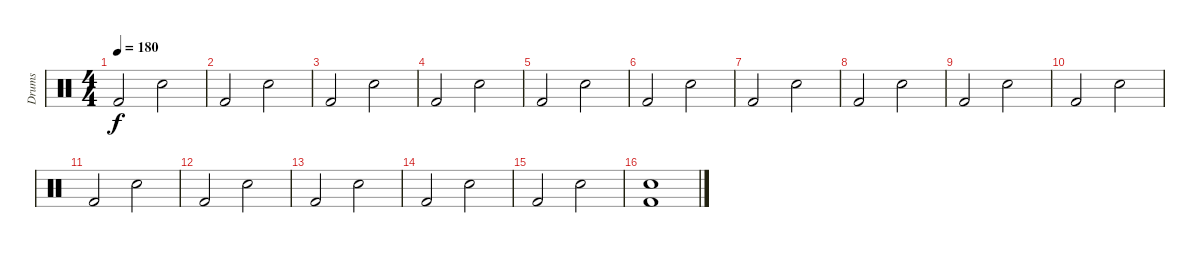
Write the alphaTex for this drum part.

\track ("Drums" "Drums") {instrument percussion}
\staff {score}
\articulation defaults
\ts (4 4)
\tempo 180
\clef neutral
\ks c "Kick (hit) 2".2{dy f} "Snare (hit) 2".2
|
"Kick (hit) 2".2 "Snare (hit) 2".2 |
"Kick (hit) 2".2 "Snare (hit) 2".2 |
"Kick (hit) 2".2 "Snare (hit) 2".2 |
"Kick (hit) 2".2 "Snare (hit) 2".2 |
"Kick (hit) 2".2 "Snare (hit) 2".2 |
"Kick (hit) 2".2 "Snare (hit) 2".2 |
"Kick (hit) 2".2 "Snare (hit) 2".2 |
"Kick (hit) 2".2 "Snare (hit) 2".2 |
"Kick (hit) 2".2 "Snare (hit) 2".2 |
"Kick (hit) 2".2 "Snare (hit) 2".2 |
"Kick (hit) 2".2 "Snare (hit) 2".2 |
"Kick (hit) 2".2 "Snare (hit) 2".2 |
"Kick (hit) 2".2 "Snare (hit) 2".2 |
"Kick (hit) 2".2 "Snare (hit) 2".2 |
("Snare (hit) 2" "Kick (hit) 2").1
